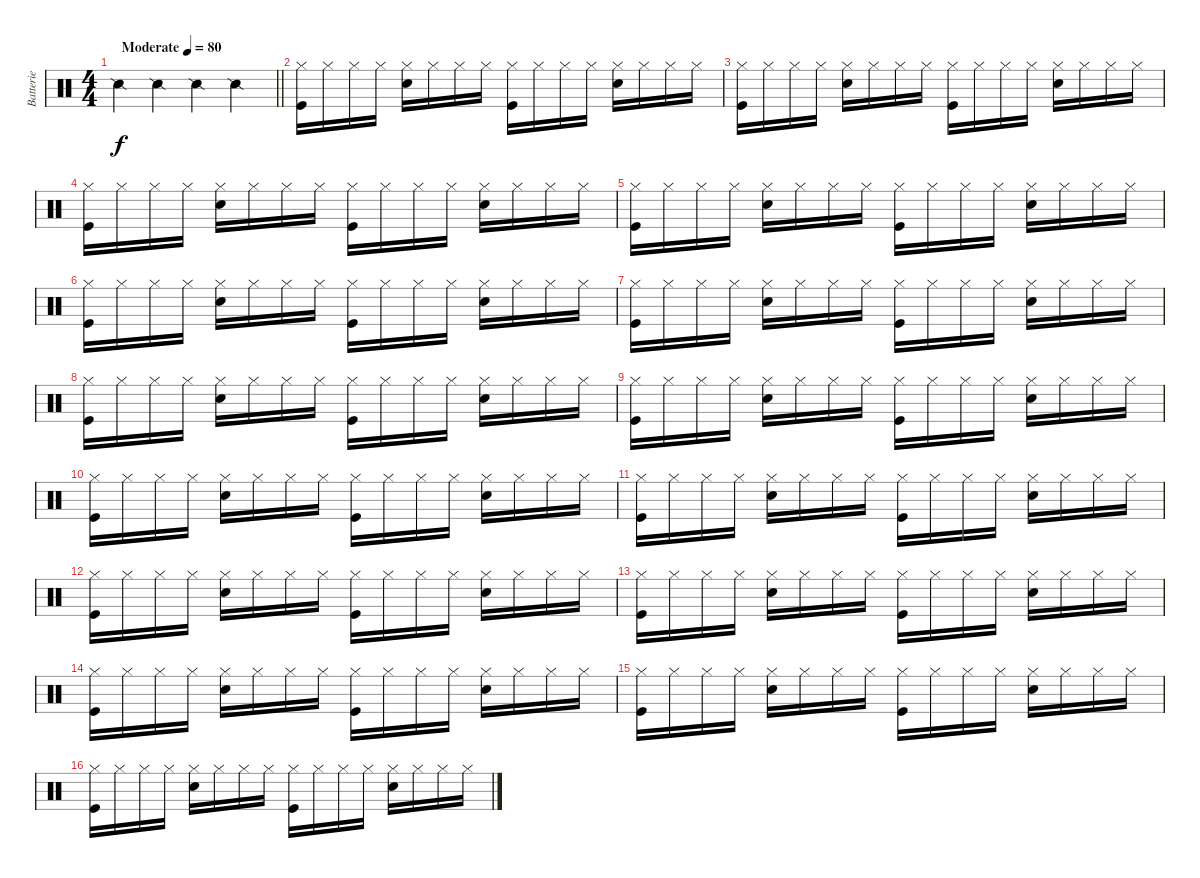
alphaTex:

\track ("Batterie" "Batterie") {instrument percussion}
\staff {score}
\articulation defaults
\ts (4 4)
\tempo (80 "Moderate")
\clef neutral
\barLineRight lightlight
\ks c "Snare (side stick) 2".4{dy f} "Snare (side stick) 2".4 "Snare (side stick) 2".4 "Snare (side stick) 2".4
|
("Hi-Hat (closed)" "Kick (hit)").16 "Hi-Hat (closed)".16 "Hi-Hat (closed)".16 "Hi-Hat (closed)".16 ("Hi-Hat (closed)" "Snare (hit) 2").16 "Hi-Hat (closed)".16 "Hi-Hat (closed)".16 "Hi-Hat (closed)".16 ("Hi-Hat (closed)" "Kick (hit)").16 "Hi-Hat (closed)".16 "Hi-Hat (closed)".16 "Hi-Hat (closed)".16 ("Hi-Hat (closed)" "Snare (hit) 2").16 "Hi-Hat (closed)".16 "Hi-Hat (closed)".16 "Hi-Hat (closed)".16 |
("Hi-Hat (closed)" "Kick (hit)").16 "Hi-Hat (closed)".16 "Hi-Hat (closed)".16 "Hi-Hat (closed)".16 ("Hi-Hat (closed)" "Snare (hit) 2").16 "Hi-Hat (closed)".16 "Hi-Hat (closed)".16 "Hi-Hat (closed)".16 ("Hi-Hat (closed)" "Kick (hit)").16 "Hi-Hat (closed)".16 "Hi-Hat (closed)".16 "Hi-Hat (closed)".16 ("Hi-Hat (closed)" "Snare (hit) 2").16 "Hi-Hat (closed)".16 "Hi-Hat (closed)".16 "Hi-Hat (closed)".16 |
("Hi-Hat (closed)" "Kick (hit)").16 "Hi-Hat (closed)".16 "Hi-Hat (closed)".16 "Hi-Hat (closed)".16 ("Hi-Hat (closed)" "Snare (hit) 2").16 "Hi-Hat (closed)".16 "Hi-Hat (closed)".16 "Hi-Hat (closed)".16 ("Hi-Hat (closed)" "Kick (hit)").16 "Hi-Hat (closed)".16 "Hi-Hat (closed)".16 "Hi-Hat (closed)".16 ("Hi-Hat (closed)" "Snare (hit) 2").16 "Hi-Hat (closed)".16 "Hi-Hat (closed)".16 "Hi-Hat (closed)".16 |
("Hi-Hat (closed)" "Kick (hit)").16 "Hi-Hat (closed)".16 "Hi-Hat (closed)".16 "Hi-Hat (closed)".16 ("Hi-Hat (closed)" "Snare (hit) 2").16 "Hi-Hat (closed)".16 "Hi-Hat (closed)".16 "Hi-Hat (closed)".16 ("Hi-Hat (closed)" "Kick (hit)").16 "Hi-Hat (closed)".16 "Hi-Hat (closed)".16 "Hi-Hat (closed)".16 ("Hi-Hat (closed)" "Snare (hit) 2").16 "Hi-Hat (closed)".16 "Hi-Hat (closed)".16 "Hi-Hat (closed)".16 |
("Hi-Hat (closed)" "Kick (hit)").16 "Hi-Hat (closed)".16 "Hi-Hat (closed)".16 "Hi-Hat (closed)".16 ("Hi-Hat (closed)" "Snare (hit) 2").16 "Hi-Hat (closed)".16 "Hi-Hat (closed)".16 "Hi-Hat (closed)".16 ("Hi-Hat (closed)" "Kick (hit)").16 "Hi-Hat (closed)".16 "Hi-Hat (closed)".16 "Hi-Hat (closed)".16 ("Hi-Hat (closed)" "Snare (hit) 2").16 "Hi-Hat (closed)".16 "Hi-Hat (closed)".16 "Hi-Hat (closed)".16 |
("Hi-Hat (closed)" "Kick (hit)").16 "Hi-Hat (closed)".16 "Hi-Hat (closed)".16 "Hi-Hat (closed)".16 ("Hi-Hat (closed)" "Snare (hit) 2").16 "Hi-Hat (closed)".16 "Hi-Hat (closed)".16 "Hi-Hat (closed)".16 ("Hi-Hat (closed)" "Kick (hit)").16 "Hi-Hat (closed)".16 "Hi-Hat (closed)".16 "Hi-Hat (closed)".16 ("Hi-Hat (closed)" "Snare (hit) 2").16 "Hi-Hat (closed)".16 "Hi-Hat (closed)".16 "Hi-Hat (closed)".16 |
("Hi-Hat (closed)" "Kick (hit)").16 "Hi-Hat (closed)".16 "Hi-Hat (closed)".16 "Hi-Hat (closed)".16 ("Hi-Hat (closed)" "Snare (hit) 2").16 "Hi-Hat (closed)".16 "Hi-Hat (closed)".16 "Hi-Hat (closed)".16 ("Hi-Hat (closed)" "Kick (hit)").16 "Hi-Hat (closed)".16 "Hi-Hat (closed)".16 "Hi-Hat (closed)".16 ("Hi-Hat (closed)" "Snare (hit) 2").16 "Hi-Hat (closed)".16 "Hi-Hat (closed)".16 "Hi-Hat (closed)".16 |
("Hi-Hat (closed)" "Kick (hit)").16 "Hi-Hat (closed)".16 "Hi-Hat (closed)".16 "Hi-Hat (closed)".16 ("Hi-Hat (closed)" "Snare (hit) 2").16 "Hi-Hat (closed)".16 "Hi-Hat (closed)".16 "Hi-Hat (closed)".16 ("Hi-Hat (closed)" "Kick (hit)").16 "Hi-Hat (closed)".16 "Hi-Hat (closed)".16 "Hi-Hat (closed)".16 ("Hi-Hat (closed)" "Snare (hit) 2").16 "Hi-Hat (closed)".16 "Hi-Hat (closed)".16 "Hi-Hat (closed)".16 |
("Hi-Hat (closed)" "Kick (hit)").16 "Hi-Hat (closed)".16 "Hi-Hat (closed)".16 "Hi-Hat (closed)".16 ("Hi-Hat (closed)" "Snare (hit) 2").16 "Hi-Hat (closed)".16 "Hi-Hat (closed)".16 "Hi-Hat (closed)".16 ("Hi-Hat (closed)" "Kick (hit)").16 "Hi-Hat (closed)".16 "Hi-Hat (closed)".16 "Hi-Hat (closed)".16 ("Hi-Hat (closed)" "Snare (hit) 2").16 "Hi-Hat (closed)".16 "Hi-Hat (closed)".16 "Hi-Hat (closed)".16 |
("Hi-Hat (closed)" "Kick (hit)").16 "Hi-Hat (closed)".16 "Hi-Hat (closed)".16 "Hi-Hat (closed)".16 ("Hi-Hat (closed)" "Snare (hit) 2").16 "Hi-Hat (closed)".16 "Hi-Hat (closed)".16 "Hi-Hat (closed)".16 ("Hi-Hat (closed)" "Kick (hit)").16 "Hi-Hat (closed)".16 "Hi-Hat (closed)".16 "Hi-Hat (closed)".16 ("Hi-Hat (closed)" "Snare (hit) 2").16 "Hi-Hat (closed)".16 "Hi-Hat (closed)".16 "Hi-Hat (closed)".16 |
("Hi-Hat (closed)" "Kick (hit)").16 "Hi-Hat (closed)".16 "Hi-Hat (closed)".16 "Hi-Hat (closed)".16 ("Hi-Hat (closed)" "Snare (hit) 2").16 "Hi-Hat (closed)".16 "Hi-Hat (closed)".16 "Hi-Hat (closed)".16 ("Hi-Hat (closed)" "Kick (hit)").16 "Hi-Hat (closed)".16 "Hi-Hat (closed)".16 "Hi-Hat (closed)".16 ("Hi-Hat (closed)" "Snare (hit) 2").16 "Hi-Hat (closed)".16 "Hi-Hat (closed)".16 "Hi-Hat (closed)".16 |
("Hi-Hat (closed)" "Kick (hit)").16 "Hi-Hat (closed)".16 "Hi-Hat (closed)".16 "Hi-Hat (closed)".16 ("Hi-Hat (closed)" "Snare (hit) 2").16 "Hi-Hat (closed)".16 "Hi-Hat (closed)".16 "Hi-Hat (closed)".16 ("Hi-Hat (closed)" "Kick (hit)").16 "Hi-Hat (closed)".16 "Hi-Hat (closed)".16 "Hi-Hat (closed)".16 ("Hi-Hat (closed)" "Snare (hit) 2").16 "Hi-Hat (closed)".16 "Hi-Hat (closed)".16 "Hi-Hat (closed)".16 |
("Hi-Hat (closed)" "Kick (hit)").16 "Hi-Hat (closed)".16 "Hi-Hat (closed)".16 "Hi-Hat (closed)".16 ("Hi-Hat (closed)" "Snare (hit) 2").16 "Hi-Hat (closed)".16 "Hi-Hat (closed)".16 "Hi-Hat (closed)".16 ("Hi-Hat (closed)" "Kick (hit)").16 "Hi-Hat (closed)".16 "Hi-Hat (closed)".16 "Hi-Hat (closed)".16 ("Hi-Hat (closed)" "Snare (hit) 2").16 "Hi-Hat (closed)".16 "Hi-Hat (closed)".16 "Hi-Hat (closed)".16 |
("Hi-Hat (closed)" "Kick (hit)").16 "Hi-Hat (closed)".16 "Hi-Hat (closed)".16 "Hi-Hat (closed)".16 ("Hi-Hat (closed)" "Snare (hit) 2").16 "Hi-Hat (closed)".16 "Hi-Hat (closed)".16 "Hi-Hat (closed)".16 ("Hi-Hat (closed)" "Kick (hit)").16 "Hi-Hat (closed)".16 "Hi-Hat (closed)".16 "Hi-Hat (closed)".16 ("Hi-Hat (closed)" "Snare (hit) 2").16 "Hi-Hat (closed)".16 "Hi-Hat (closed)".16 "Hi-Hat (closed)".16 |
("Hi-Hat (closed)" "Kick (hit)").16 "Hi-Hat (closed)".16 "Hi-Hat (closed)".16 "Hi-Hat (closed)".16 ("Hi-Hat (closed)" "Snare (hit) 2").16 "Hi-Hat (closed)".16 "Hi-Hat (closed)".16 "Hi-Hat (closed)".16 ("Hi-Hat (closed)" "Kick (hit)").16 "Hi-Hat (closed)".16 "Hi-Hat (closed)".16 "Hi-Hat (closed)".16 ("Hi-Hat (closed)" "Snare (hit) 2").16 "Hi-Hat (closed)".16 "Hi-Hat (closed)".16 "Hi-Hat (closed)".16
